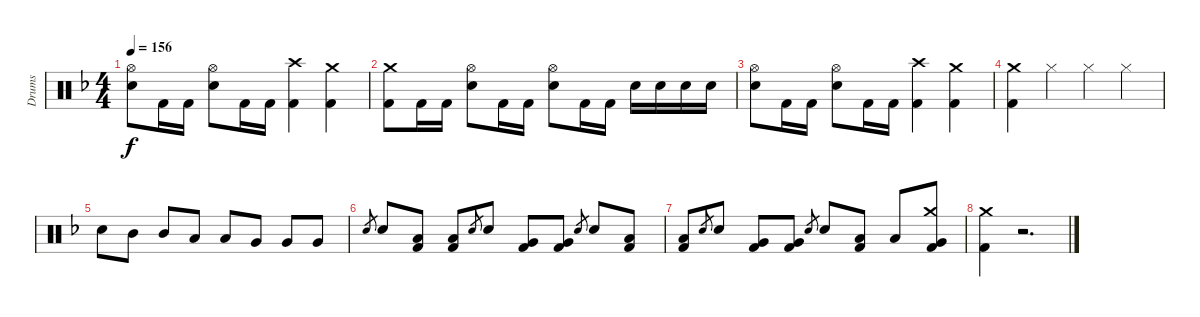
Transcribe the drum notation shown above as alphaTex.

\track ("Drums" "Drums") {instrument percussion}
\staff {score}
\articulation defaults
\ts (4 4)
\tempo 156
\clef neutral
\ks f
("Hi-Hat (open)" "Electric Snare (hit)").8{dy f} "Kick (hit) 2".16 "Kick (hit) 2".16 ("Hi-Hat (open)" "Electric Snare (hit)").8 "Kick (hit) 2".16 "Kick (hit) 2".16 ("Crash high (hit)" "Kick (hit) 2").4 ("Crash medium (hit)" "Kick (hit) 2").4 |
("Crash medium (hit)" "Kick (hit) 2").8 "Kick (hit) 2".16 "Kick (hit) 2".16 ("Hi-Hat (open)" "Electric Snare (hit)").8 "Kick (hit) 2".16 "Kick (hit) 2".16 ("Hi-Hat (open)" "Electric Snare (hit)").8 "Kick (hit) 2".16 "Kick (hit) 2".16 "Electric Snare (hit)".16 "Electric Snare (hit)".16 "Electric Snare (hit)".16 "Electric Snare (hit)".16 |
("Hi-Hat (open)" "Electric Snare (hit)").8 "Kick (hit) 2".16 "Kick (hit) 2".16 ("Hi-Hat (open)" "Electric Snare (hit)").8 "Kick (hit) 2".16 "Kick (hit) 2".16 ("Crash high (hit)" "Kick (hit) 2").4 ("Crash medium (hit)" "Kick (hit) 2").4 |
("Crash medium (hit)" "Kick (hit) 2").4 "Hi-Hat (closed)".4 "Hi-Hat (closed)".4 "Hi-Hat (closed)".4 |
"Electric Snare (hit)".8 "Mid Tom (hit)".8 "Mid Tom (hit)".8 "Low Tom (hit)".8 "Low Tom (hit)".8 "Very Low Tom (hit)".8 "Very Low Tom (hit)".8 "Very Low Tom (hit)".8 |
"Electric Snare (hit)".8{gr} "Electric Snare (hit)".8 ("Low Tom (hit)" "Kick (hit) 2").8 ("Low Tom (hit)" "Kick (hit) 2").8 "Electric Snare (hit)".8{gr} "Electric Snare (hit)".8 ("Very Low Tom (hit)" "Kick (hit) 2").8 ("Very Low Tom (hit)" "Kick (hit) 2").8 "Electric Snare (hit)".8{gr} "Electric Snare (hit)".8 ("Low Floor Tom (hit)" "Kick (hit) 2").8 |
("Low Floor Tom (hit)" "Kick (hit) 2").8 "Electric Snare (hit)".8{gr} "Electric Snare (hit)".8 ("Very Low Tom (hit)" "Kick (hit) 2").8 ("Very Low Tom (hit)" "Kick (hit) 2").8 "Electric Snare (hit)".8{gr} "Electric Snare (hit)".8 ("Low Tom (hit)" "Kick (hit) 2").8 "Low Tom (hit)".8 ("Crash medium (hit)" "Very Low Tom (hit)" "Kick (hit) 2").8 |
("Crash medium (hit)" "Kick (hit) 2").4 r.2{d}
